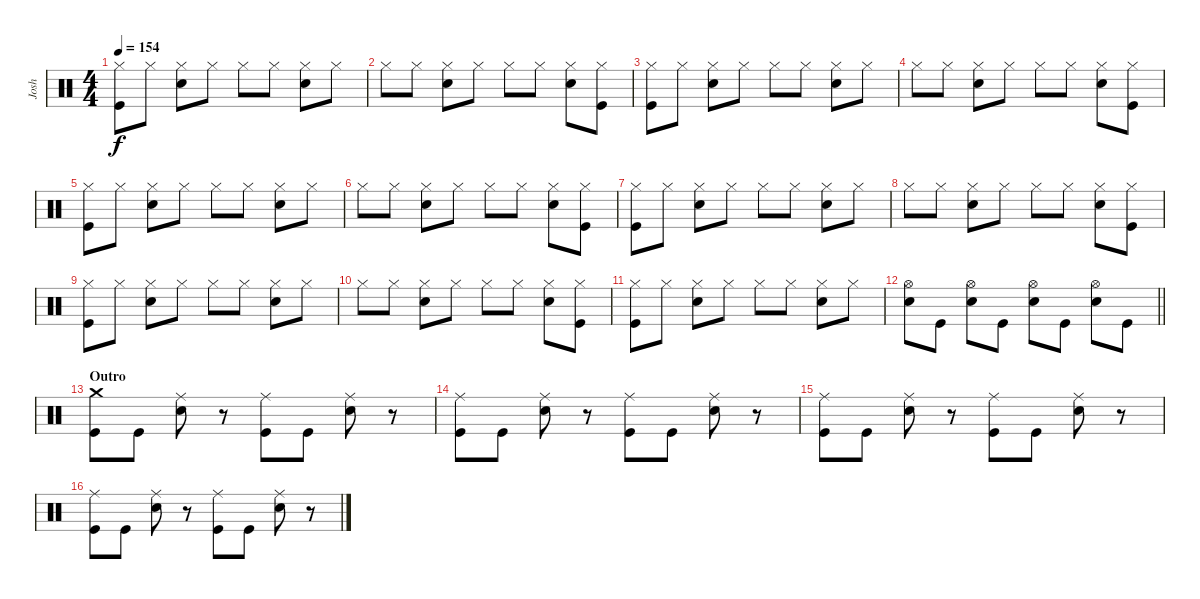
\track ("Josh" "Josh") {instrument percussion}
\staff {score}
\articulation defaults
\ts (4 4)
\tempo 154
\clef neutral
\ks c
("Hi-Hat (closed)" "Kick (hit)").8{dy f} "Hi-Hat (closed)".8 ("Hi-Hat (closed)" "Snare (hit) 2").8 "Hi-Hat (closed)".8 "Hi-Hat (closed)".8 "Hi-Hat (closed)".8 ("Hi-Hat (closed)" "Snare (hit) 2").8 "Hi-Hat (closed)".8 |
"Hi-Hat (closed)".8 "Hi-Hat (closed)".8 ("Hi-Hat (closed)" "Snare (hit) 2").8 "Hi-Hat (closed)".8 "Hi-Hat (closed)".8 "Hi-Hat (closed)".8 ("Hi-Hat (closed)" "Snare (hit) 2").8 ("Hi-Hat (closed)" "Kick (hit)").8 |
("Hi-Hat (closed)" "Kick (hit)").8 "Hi-Hat (closed)".8 ("Hi-Hat (closed)" "Snare (hit) 2").8 "Hi-Hat (closed)".8 "Hi-Hat (closed)".8 "Hi-Hat (closed)".8 ("Hi-Hat (closed)" "Snare (hit) 2").8 "Hi-Hat (closed)".8 |
"Hi-Hat (closed)".8 "Hi-Hat (closed)".8 ("Hi-Hat (closed)" "Snare (hit) 2").8 "Hi-Hat (closed)".8 "Hi-Hat (closed)".8 "Hi-Hat (closed)".8 ("Hi-Hat (closed)" "Snare (hit) 2").8 ("Hi-Hat (closed)" "Kick (hit)").8 |
("Hi-Hat (closed)" "Kick (hit)").8 "Hi-Hat (closed)".8 ("Hi-Hat (closed)" "Snare (hit) 2").8 "Hi-Hat (closed)".8 "Hi-Hat (closed)".8 "Hi-Hat (closed)".8 ("Hi-Hat (closed)" "Snare (hit) 2").8 "Hi-Hat (closed)".8 |
"Hi-Hat (closed)".8 "Hi-Hat (closed)".8 ("Hi-Hat (closed)" "Snare (hit) 2").8 "Hi-Hat (closed)".8 "Hi-Hat (closed)".8 "Hi-Hat (closed)".8 ("Hi-Hat (closed)" "Snare (hit) 2").8 ("Hi-Hat (closed)" "Kick (hit)").8 |
("Hi-Hat (closed)" "Kick (hit)").8 "Hi-Hat (closed)".8 ("Hi-Hat (closed)" "Snare (hit) 2").8 "Hi-Hat (closed)".8 "Hi-Hat (closed)".8 "Hi-Hat (closed)".8 ("Hi-Hat (closed)" "Snare (hit) 2").8 "Hi-Hat (closed)".8 |
"Hi-Hat (closed)".8 "Hi-Hat (closed)".8 ("Hi-Hat (closed)" "Snare (hit) 2").8 "Hi-Hat (closed)".8 "Hi-Hat (closed)".8 "Hi-Hat (closed)".8 ("Hi-Hat (closed)" "Snare (hit) 2").8 ("Hi-Hat (closed)" "Kick (hit)").8 |
("Hi-Hat (closed)" "Kick (hit)").8 "Hi-Hat (closed)".8 ("Hi-Hat (closed)" "Snare (hit) 2").8 "Hi-Hat (closed)".8 "Hi-Hat (closed)".8 "Hi-Hat (closed)".8 ("Hi-Hat (closed)" "Snare (hit) 2").8 "Hi-Hat (closed)".8 |
"Hi-Hat (closed)".8 "Hi-Hat (closed)".8 ("Hi-Hat (closed)" "Snare (hit) 2").8 "Hi-Hat (closed)".8 "Hi-Hat (closed)".8 "Hi-Hat (closed)".8 ("Hi-Hat (closed)" "Snare (hit) 2").8 ("Hi-Hat (closed)" "Kick (hit)").8 |
("Hi-Hat (closed)" "Kick (hit)").8 "Hi-Hat (closed)".8 ("Hi-Hat (closed)" "Snare (hit) 2").8 "Hi-Hat (closed)".8 "Hi-Hat (closed)".8 "Hi-Hat (closed)".8 ("Hi-Hat (closed)" "Snare (hit) 2").8 "Hi-Hat (closed)".8 |
\barLineRight lightlight
("Hi-Hat (open)" "Snare (hit) 2").8 "Kick (hit)".8 ("Hi-Hat (open)" "Snare (hit) 2").8 "Kick (hit)".8 ("Hi-Hat (open)" "Snare (hit) 2").8 "Kick (hit)".8 ("Hi-Hat (open)" "Snare (hit) 2").8 "Kick (hit)".8 |
\section ("" "Outro")
("Crash medium (hit)" "Kick (hit)").8 "Kick (hit)".8 ("Ride (middle)" "Snare (hit) 2").8 r.8 ("Ride (middle)" "Kick (hit)").8 "Kick (hit)".8 ("Ride (middle)" "Snare (hit) 2").8 r.8 |
("Ride (middle)" "Kick (hit)").8 "Kick (hit)".8 ("Ride (middle)" "Snare (hit) 2").8 r.8 ("Ride (middle)" "Kick (hit)").8 "Kick (hit)".8 ("Ride (middle)" "Snare (hit) 2").8 r.8 |
("Ride (middle)" "Kick (hit)").8 "Kick (hit)".8 ("Ride (middle)" "Snare (hit) 2").8 r.8 ("Ride (middle)" "Kick (hit)").8 "Kick (hit)".8 ("Ride (middle)" "Snare (hit) 2").8 r.8 |
("Ride (middle)" "Kick (hit)").8 "Kick (hit)".8 ("Ride (middle)" "Snare (hit) 2").8 r.8 ("Ride (middle)" "Kick (hit)").8 "Kick (hit)".8 ("Ride (middle)" "Snare (hit) 2").8 r.8
